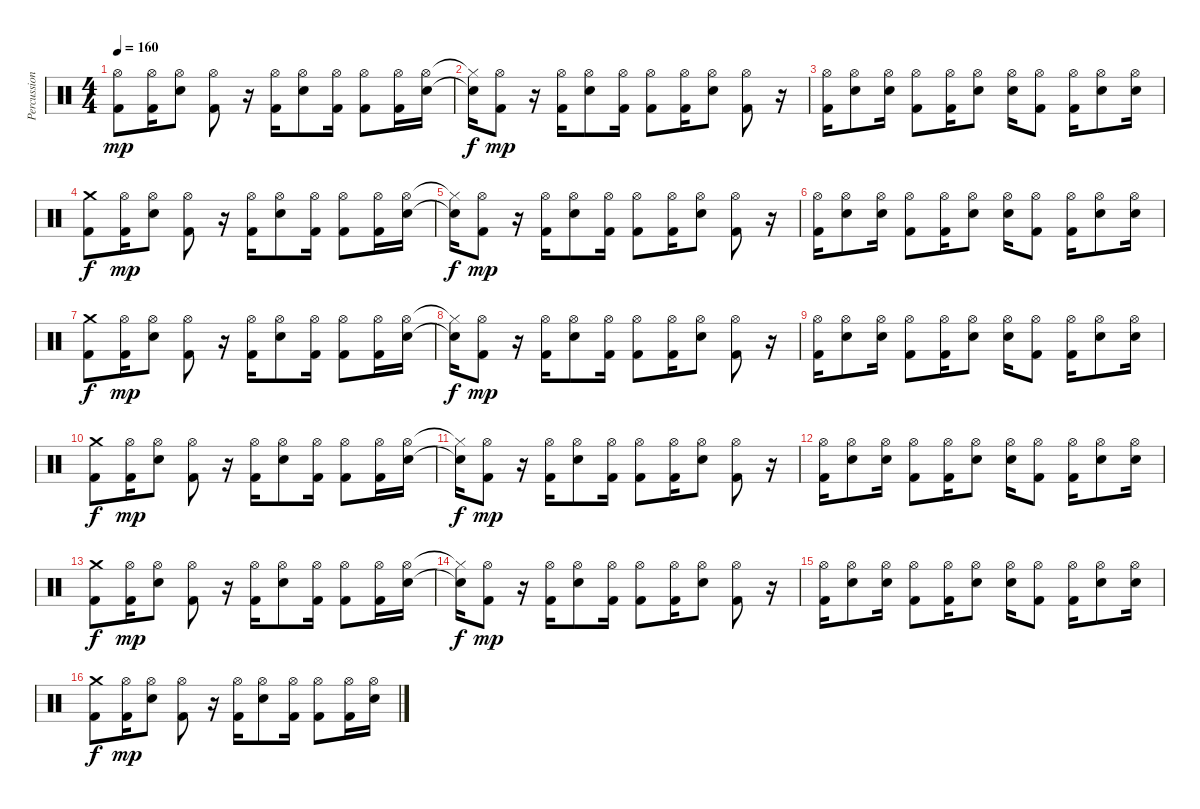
\track ("Percussions" "Percussion") {instrument percussion}
\staff {score}
\articulation defaults
\ts (4 4)
\tempo 160
\clef neutral
\ks c
("Hi-Hat (open)" "Kick (hit) 2").8{dy mp} ("Hi-Hat (open)" "Kick (hit) 2").16 ("Hi-Hat (open)" "Electric Snare (hit)").8 ("Hi-Hat (open)" "Kick (hit) 2").8 r.16 ("Hi-Hat (open)" "Kick (hit) 2").16 ("Hi-Hat (open)" "Electric Snare (hit)").8 ("Hi-Hat (open)" "Kick (hit) 2").16 ("Hi-Hat (open)" "Kick (hit) 2").8 ("Hi-Hat (open)" "Kick (hit) 2").16 ("Hi-Hat (open)" "Electric Snare (hit)").16 |
("Hi-Hat (closed)"{t} "Electric Snare (hit)"{t}).16{dy f} ("Hi-Hat (open)" "Kick (hit) 2").8{dy mp} r.16 ("Hi-Hat (open)" "Kick (hit) 2").16 ("Hi-Hat (open)" "Electric Snare (hit)").8 ("Hi-Hat (open)" "Kick (hit) 2").16 ("Hi-Hat (open)" "Kick (hit) 2").8 ("Hi-Hat (open)" "Kick (hit) 2").16 ("Hi-Hat (open)" "Electric Snare (hit)").8 ("Hi-Hat (open)" "Kick (hit) 2").8 r.16 |
("Hi-Hat (open)" "Kick (hit) 2").16 ("Hi-Hat (open)" "Electric Snare (hit)").8 ("Hi-Hat (open)" "Electric Snare (hit)").16 ("Hi-Hat (open)" "Kick (hit) 2").8 ("Hi-Hat (open)" "Kick (hit) 2").16 ("Hi-Hat (open)" "Electric Snare (hit)").8 ("Hi-Hat (open)" "Electric Snare (hit)").16 ("Hi-Hat (open)" "Kick (hit) 2").8 ("Hi-Hat (open)" "Kick (hit) 2").16 ("Hi-Hat (open)" "Electric Snare (hit)").8 ("Hi-Hat (open)" "Electric Snare (hit)").16 |
("Crash medium (hit)" "Kick (hit) 2").8{dy f} ("Hi-Hat (open)" "Kick (hit) 2").16{dy mp} ("Hi-Hat (open)" "Electric Snare (hit)").8 ("Hi-Hat (open)" "Kick (hit) 2").8 r.16 ("Hi-Hat (open)" "Kick (hit) 2").16 ("Hi-Hat (open)" "Electric Snare (hit)").8 ("Hi-Hat (open)" "Kick (hit) 2").16 ("Hi-Hat (open)" "Kick (hit) 2").8 ("Hi-Hat (open)" "Kick (hit) 2").16 ("Hi-Hat (open)" "Electric Snare (hit)").16 |
("Hi-Hat (closed)"{t} "Electric Snare (hit)"{t}).16{dy f} ("Hi-Hat (open)" "Kick (hit) 2").8{dy mp} r.16 ("Hi-Hat (open)" "Kick (hit) 2").16 ("Hi-Hat (open)" "Electric Snare (hit)").8 ("Hi-Hat (open)" "Kick (hit) 2").16 ("Hi-Hat (open)" "Kick (hit) 2").8 ("Hi-Hat (open)" "Kick (hit) 2").16 ("Hi-Hat (open)" "Electric Snare (hit)").8 ("Hi-Hat (open)" "Kick (hit) 2").8 r.16 |
("Hi-Hat (open)" "Kick (hit) 2").16 ("Hi-Hat (open)" "Electric Snare (hit)").8 ("Hi-Hat (open)" "Electric Snare (hit)").16 ("Hi-Hat (open)" "Kick (hit) 2").8 ("Hi-Hat (open)" "Kick (hit) 2").16 ("Hi-Hat (open)" "Electric Snare (hit)").8 ("Hi-Hat (open)" "Electric Snare (hit)").16 ("Hi-Hat (open)" "Kick (hit) 2").8 ("Hi-Hat (open)" "Kick (hit) 2").16 ("Hi-Hat (open)" "Electric Snare (hit)").8 ("Hi-Hat (open)" "Electric Snare (hit)").16 |
("Crash medium (hit)" "Kick (hit) 2").8{dy f} ("Hi-Hat (open)" "Kick (hit) 2").16{dy mp} ("Hi-Hat (open)" "Electric Snare (hit)").8 ("Hi-Hat (open)" "Kick (hit) 2").8 r.16 ("Hi-Hat (open)" "Kick (hit) 2").16 ("Hi-Hat (open)" "Electric Snare (hit)").8 ("Hi-Hat (open)" "Kick (hit) 2").16 ("Hi-Hat (open)" "Kick (hit) 2").8 ("Hi-Hat (open)" "Kick (hit) 2").16 ("Hi-Hat (open)" "Electric Snare (hit)").16 |
("Hi-Hat (closed)"{t} "Electric Snare (hit)"{t}).16{dy f} ("Hi-Hat (open)" "Kick (hit) 2").8{dy mp} r.16 ("Hi-Hat (open)" "Kick (hit) 2").16 ("Hi-Hat (open)" "Electric Snare (hit)").8 ("Hi-Hat (open)" "Kick (hit) 2").16 ("Hi-Hat (open)" "Kick (hit) 2").8 ("Hi-Hat (open)" "Kick (hit) 2").16 ("Hi-Hat (open)" "Electric Snare (hit)").8 ("Hi-Hat (open)" "Kick (hit) 2").8 r.16 |
("Hi-Hat (open)" "Kick (hit) 2").16 ("Hi-Hat (open)" "Electric Snare (hit)").8 ("Hi-Hat (open)" "Electric Snare (hit)").16 ("Hi-Hat (open)" "Kick (hit) 2").8 ("Hi-Hat (open)" "Kick (hit) 2").16 ("Hi-Hat (open)" "Electric Snare (hit)").8 ("Hi-Hat (open)" "Electric Snare (hit)").16 ("Hi-Hat (open)" "Kick (hit) 2").8 ("Hi-Hat (open)" "Kick (hit) 2").16 ("Hi-Hat (open)" "Electric Snare (hit)").8 ("Hi-Hat (open)" "Electric Snare (hit)").16 |
("Crash medium (hit)" "Kick (hit) 2").8{dy f} ("Hi-Hat (open)" "Kick (hit) 2").16{dy mp} ("Hi-Hat (open)" "Electric Snare (hit)").8 ("Hi-Hat (open)" "Kick (hit) 2").8 r.16 ("Hi-Hat (open)" "Kick (hit) 2").16 ("Hi-Hat (open)" "Electric Snare (hit)").8 ("Hi-Hat (open)" "Kick (hit) 2").16 ("Hi-Hat (open)" "Kick (hit) 2").8 ("Hi-Hat (open)" "Kick (hit) 2").16 ("Hi-Hat (open)" "Electric Snare (hit)").16 |
("Hi-Hat (closed)"{t} "Electric Snare (hit)"{t}).16{dy f} ("Hi-Hat (open)" "Kick (hit) 2").8{dy mp} r.16 ("Hi-Hat (open)" "Kick (hit) 2").16 ("Hi-Hat (open)" "Electric Snare (hit)").8 ("Hi-Hat (open)" "Kick (hit) 2").16 ("Hi-Hat (open)" "Kick (hit) 2").8 ("Hi-Hat (open)" "Kick (hit) 2").16 ("Hi-Hat (open)" "Electric Snare (hit)").8 ("Hi-Hat (open)" "Kick (hit) 2").8 r.16 |
("Hi-Hat (open)" "Kick (hit) 2").16 ("Hi-Hat (open)" "Electric Snare (hit)").8 ("Hi-Hat (open)" "Electric Snare (hit)").16 ("Hi-Hat (open)" "Kick (hit) 2").8 ("Hi-Hat (open)" "Kick (hit) 2").16 ("Hi-Hat (open)" "Electric Snare (hit)").8 ("Hi-Hat (open)" "Electric Snare (hit)").16 ("Hi-Hat (open)" "Kick (hit) 2").8 ("Hi-Hat (open)" "Kick (hit) 2").16 ("Hi-Hat (open)" "Electric Snare (hit)").8 ("Hi-Hat (open)" "Electric Snare (hit)").16 |
("Crash medium (hit)" "Kick (hit) 2").8{dy f} ("Hi-Hat (open)" "Kick (hit) 2").16{dy mp} ("Hi-Hat (open)" "Electric Snare (hit)").8 ("Hi-Hat (open)" "Kick (hit) 2").8 r.16 ("Hi-Hat (open)" "Kick (hit) 2").16 ("Hi-Hat (open)" "Electric Snare (hit)").8 ("Hi-Hat (open)" "Kick (hit) 2").16 ("Hi-Hat (open)" "Kick (hit) 2").8 ("Hi-Hat (open)" "Kick (hit) 2").16 ("Hi-Hat (open)" "Electric Snare (hit)").16 |
("Hi-Hat (closed)"{t} "Electric Snare (hit)"{t}).16{dy f} ("Hi-Hat (open)" "Kick (hit) 2").8{dy mp} r.16 ("Hi-Hat (open)" "Kick (hit) 2").16 ("Hi-Hat (open)" "Electric Snare (hit)").8 ("Hi-Hat (open)" "Kick (hit) 2").16 ("Hi-Hat (open)" "Kick (hit) 2").8 ("Hi-Hat (open)" "Kick (hit) 2").16 ("Hi-Hat (open)" "Electric Snare (hit)").8 ("Hi-Hat (open)" "Kick (hit) 2").8 r.16 |
("Hi-Hat (open)" "Kick (hit) 2").16 ("Hi-Hat (open)" "Electric Snare (hit)").8 ("Hi-Hat (open)" "Electric Snare (hit)").16 ("Hi-Hat (open)" "Kick (hit) 2").8 ("Hi-Hat (open)" "Kick (hit) 2").16 ("Hi-Hat (open)" "Electric Snare (hit)").8 ("Hi-Hat (open)" "Electric Snare (hit)").16 ("Hi-Hat (open)" "Kick (hit) 2").8 ("Hi-Hat (open)" "Kick (hit) 2").16 ("Hi-Hat (open)" "Electric Snare (hit)").8 ("Hi-Hat (open)" "Electric Snare (hit)").16 |
("Crash medium (hit)" "Kick (hit) 2").8{dy f} ("Hi-Hat (open)" "Kick (hit) 2").16{dy mp} ("Hi-Hat (open)" "Electric Snare (hit)").8 ("Hi-Hat (open)" "Kick (hit) 2").8 r.16 ("Hi-Hat (open)" "Kick (hit) 2").16 ("Hi-Hat (open)" "Electric Snare (hit)").8 ("Hi-Hat (open)" "Kick (hit) 2").16 ("Hi-Hat (open)" "Kick (hit) 2").8 ("Hi-Hat (open)" "Kick (hit) 2").16 ("Hi-Hat (open)" "Electric Snare (hit)").16
